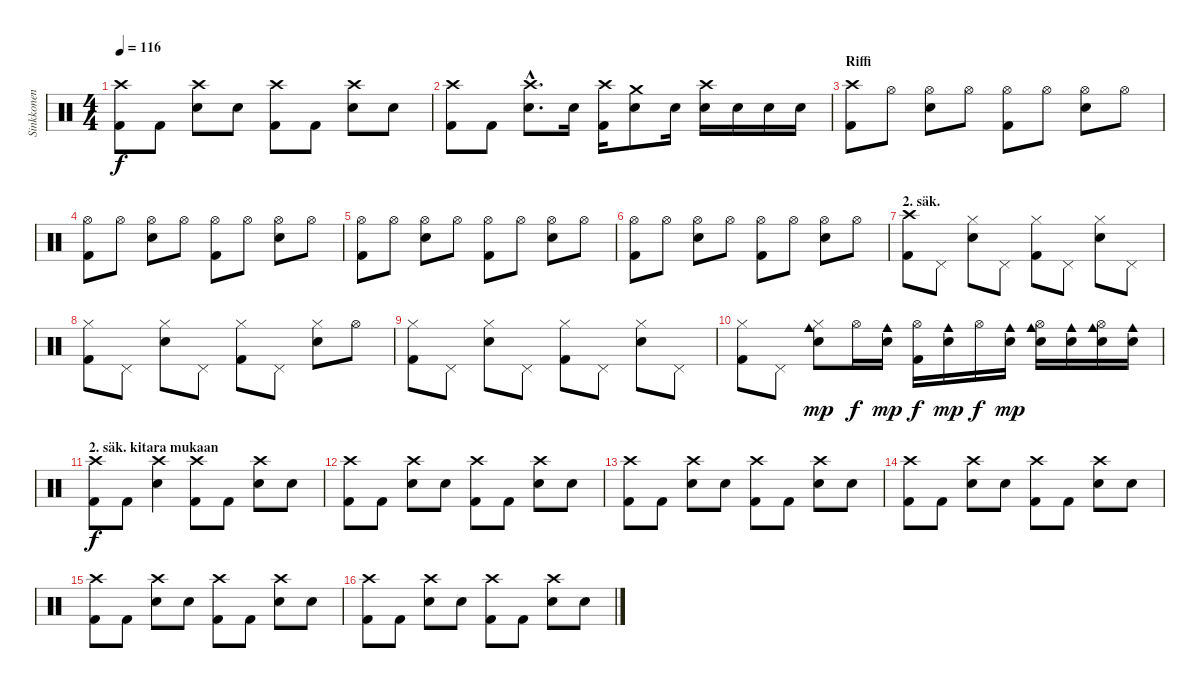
\track ("Sinkkonen" "Sinkkonen") {instrument percussion}
\staff {score}
\articulation defaults
\ts (4 4)
\tempo 116
\clef neutral
\ks c
("Kick (hit) 2" "Crash high (hit)").8{dy f} "Kick (hit) 2".8 ("Crash high (hit)" "Snare (hit) 2").8 "Snare (hit) 2".8 ("Kick (hit) 2" "Crash high (hit)").8 "Kick (hit) 2".8 ("Crash high (hit)" "Snare (hit) 2").8 "Snare (hit) 2".8 |
("Kick (hit) 2" "Crash high (hit)").8 "Kick (hit) 2".8 ("Crash high (hit)"{hac} "Snare (hit) 2"{hac}).8{d} "Snare (hit) 2".16 ("Kick (hit) 2" "Crash high (hit)").16 ("Crash medium (hit)" "Snare (hit) 2").8 "Snare (hit) 2".16 ("Crash high (hit)" "Snare (hit) 2").16 "Snare (hit) 2".16 "Snare (hit) 2".16 "Snare (hit) 2".16 |
\section ("" "Riffi")
("Kick (hit) 2" "Crash high (hit)").8 "Hi-Hat (open)".8 ("Hi-Hat (open)" "Snare (hit) 2").8 "Hi-Hat (open)".8 ("Kick (hit) 2" "Hi-Hat (open)").8 "Hi-Hat (open)".8 ("Hi-Hat (open)" "Snare (hit) 2").8 "Hi-Hat (open)".8 |
("Kick (hit) 2" "Hi-Hat (open)").8 "Hi-Hat (open)".8 ("Hi-Hat (open)" "Snare (hit) 2").8 "Hi-Hat (open)".8 ("Kick (hit) 2" "Hi-Hat (open)").8 "Hi-Hat (open)".8 ("Hi-Hat (open)" "Snare (hit) 2").8 "Hi-Hat (open)".8 |
("Kick (hit) 2" "Hi-Hat (open)").8 "Hi-Hat (open)".8 ("Hi-Hat (open)" "Snare (hit) 2").8 "Hi-Hat (open)".8 ("Kick (hit) 2" "Hi-Hat (open)").8 "Hi-Hat (open)".8 ("Hi-Hat (open)" "Snare (hit) 2").8 "Hi-Hat (open)".8 |
("Kick (hit) 2" "Hi-Hat (open)").8 "Hi-Hat (open)".8 ("Hi-Hat (open)" "Snare (hit) 2").8 "Hi-Hat (open)".8 ("Kick (hit) 2" "Hi-Hat (open)").8 "Hi-Hat (open)".8 ("Hi-Hat (open)" "Snare (hit) 2").8 "Hi-Hat (open)".8 |
\section ("" "2. säk.")
("Kick (hit) 2" "Crash high (hit)").8 "Pedal Hi-Hat (hit)".8 ("Hi-Hat (closed)" "Snare (hit) 2").8 "Pedal Hi-Hat (hit)".8 ("Kick (hit) 2" "Hi-Hat (closed)").8 "Pedal Hi-Hat (hit)".8 ("Hi-Hat (closed)" "Snare (hit) 2").8 "Pedal Hi-Hat (hit)".8 |
("Kick (hit) 2" "Hi-Hat (closed)").8 "Pedal Hi-Hat (hit)".8 ("Hi-Hat (closed)" "Snare (hit) 2").8 "Pedal Hi-Hat (hit)".8 ("Kick (hit) 2" "Hi-Hat (closed)").8 "Pedal Hi-Hat (hit)".8 ("Hi-Hat (closed)" "Snare (hit) 2").8 "Hi-Hat (open)".8 |
("Kick (hit) 2" "Hi-Hat (closed)").8 "Pedal Hi-Hat (hit)".8 ("Hi-Hat (closed)" "Snare (hit) 2").8 "Pedal Hi-Hat (hit)".8 ("Kick (hit) 2" "Hi-Hat (closed)").8 "Pedal Hi-Hat (hit)".8 ("Hi-Hat (closed)" "Snare (hit) 2").8 "Pedal Hi-Hat (hit)".8 |
("Kick (hit) 2" "Hi-Hat (closed)").8 "Pedal Hi-Hat (hit)".8 ("Hi-Hat (closed)" "Snare (hit) 2" "Cowbell medium (hit)").8{dy mp} "Hi-Hat (open)".16{dy f} ("Snare (hit) 2" "Cowbell medium (hit)").16{dy mp} ("Kick (hit) 2" "Hi-Hat (open)").16{dy f} ("Snare (hit) 2" "Cowbell medium (hit)").16{dy mp} "Hi-Hat (open)".16{dy f} ("Snare (hit) 2" "Cowbell medium (hit)").16{dy mp} ("Hi-Hat (open)" "Snare (hit) 2" "Cowbell medium (hit)").16 ("Snare (hit) 2" "Cowbell medium (hit)").16 ("Hi-Hat (open)" "Snare (hit) 2" "Cowbell medium (hit)").16 ("Snare (hit) 2" "Cowbell medium (hit)").16 |
\section ("" "2. säk. kitara mukaan")
("Kick (hit) 2" "Crash high (hit)").8{dy f} "Kick (hit) 2".8 ("Crash high (hit)" "Snare (hit) 2").4 ("Kick (hit) 2" "Crash high (hit)").8 "Kick (hit) 2".8 ("Crash high (hit)" "Snare (hit) 2").8 "Snare (hit) 2".8 |
("Kick (hit) 2" "Crash high (hit)").8 "Kick (hit) 2".8 ("Crash high (hit)" "Snare (hit) 2").8 "Snare (hit) 2".8 ("Kick (hit) 2" "Crash high (hit)").8 "Kick (hit) 2".8 ("Crash high (hit)" "Snare (hit) 2").8 "Snare (hit) 2".8 |
("Kick (hit) 2" "Crash high (hit)").8 "Kick (hit) 2".8 ("Crash high (hit)" "Snare (hit) 2").8 "Snare (hit) 2".8 ("Kick (hit) 2" "Crash high (hit)").8 "Kick (hit) 2".8 ("Crash high (hit)" "Snare (hit) 2").8 "Snare (hit) 2".8 |
("Kick (hit) 2" "Crash high (hit)").8 "Kick (hit) 2".8 ("Crash high (hit)" "Snare (hit) 2").8 "Snare (hit) 2".8 ("Kick (hit) 2" "Crash high (hit)").8 "Kick (hit) 2".8 ("Crash high (hit)" "Snare (hit) 2").8 "Snare (hit) 2".8 |
("Kick (hit) 2" "Crash high (hit)").8 "Kick (hit) 2".8 ("Crash high (hit)" "Snare (hit) 2").8 "Snare (hit) 2".8 ("Kick (hit) 2" "Crash high (hit)").8 "Kick (hit) 2".8 ("Crash high (hit)" "Snare (hit) 2").8 "Snare (hit) 2".8 |
("Kick (hit) 2" "Crash high (hit)").8 "Kick (hit) 2".8 ("Crash high (hit)" "Snare (hit) 2").8 "Snare (hit) 2".8 ("Kick (hit) 2" "Crash high (hit)").8 "Kick (hit) 2".8 ("Crash high (hit)" "Snare (hit) 2").8 "Snare (hit) 2".8
